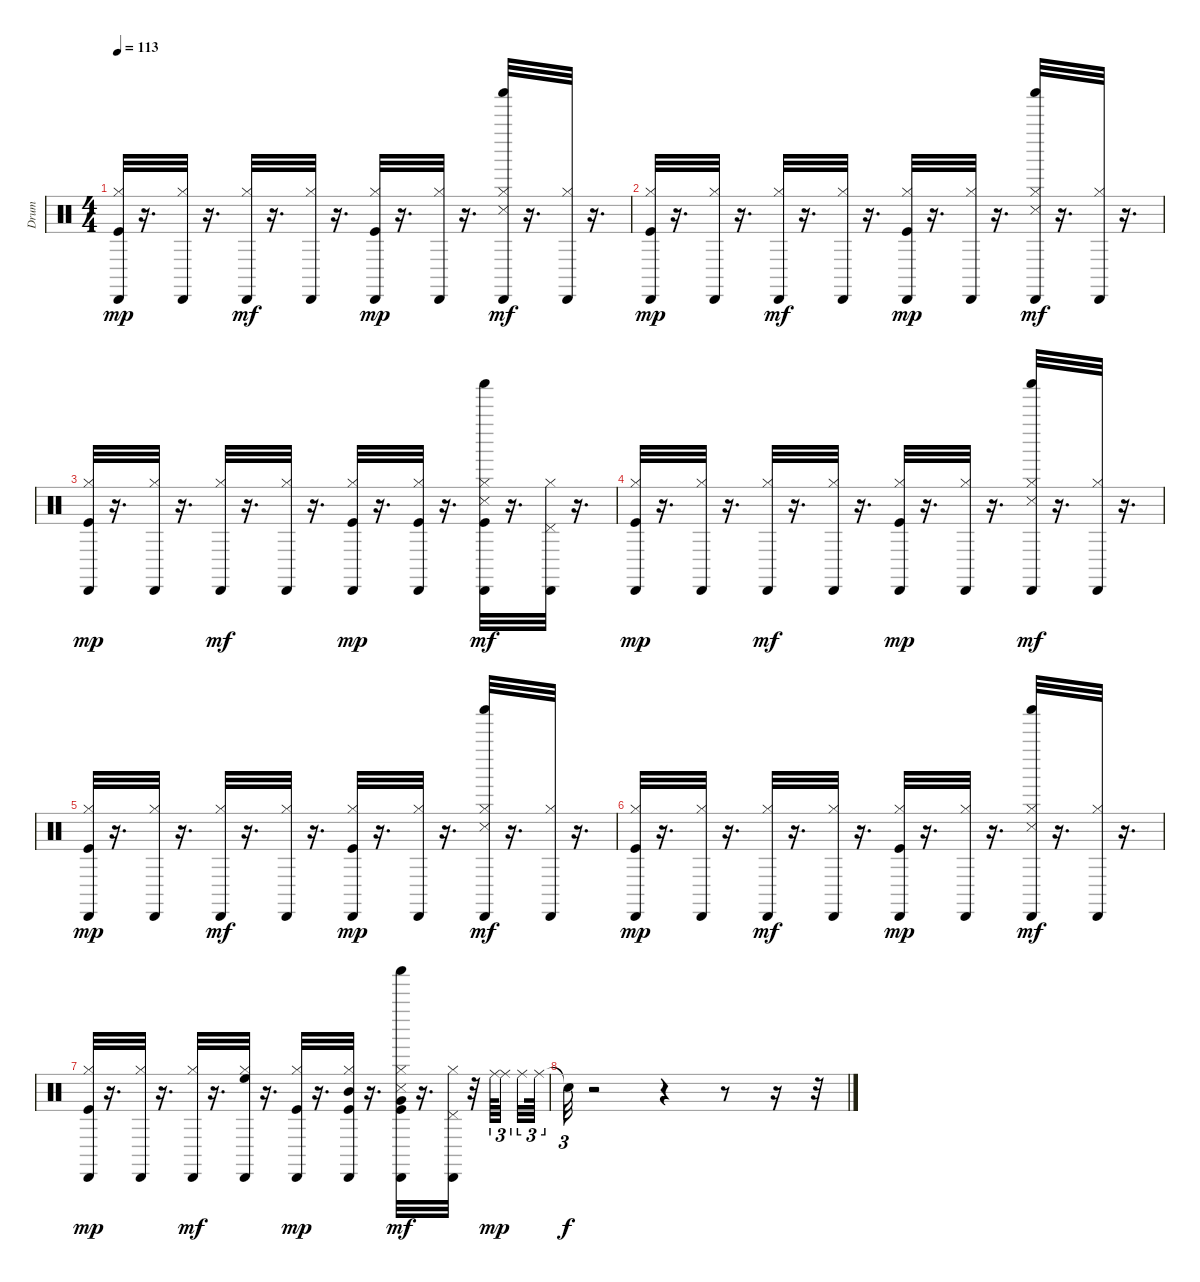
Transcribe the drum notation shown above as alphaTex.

\track ("Drum" "Drum") {instrument percussion}
\staff {score}
\articulation defaults
\ts (4 4)
\tempo 113
\clef neutral
\ks c
("Hi-Hat (closed)" "Kick (hit)" "Cabasa (hit)").32{dy mp} r.16{d} ("Hi-Hat (closed)" "Cabasa (hit)").32 r.16{d} ("Hi-Hat (closed)" "Cabasa (hit)").32{dy mf} r.16{d} ("Hi-Hat (closed)" "Cabasa (hit)").32 r.16{d} ("Hi-Hat (closed)" "Kick (hit)" "Cabasa (hit)").32{dy mp} r.16{d} ("Hi-Hat (closed)" "Cabasa (hit)").32 r.16{d} ("Hi-Hat (closed)" "Shaker (hit)" "Snare (side stick) 3" "Cabasa (hit)").32{dy mf} r.16{d} ("Hi-Hat (closed)" "Cabasa (hit)").32 r.16{d} |
("Hi-Hat (closed)" "Kick (hit)" "Cabasa (hit)").32{dy mp} r.16{d} ("Hi-Hat (closed)" "Cabasa (hit)").32 r.16{d} ("Hi-Hat (closed)" "Cabasa (hit)").32{dy mf} r.16{d} ("Hi-Hat (closed)" "Cabasa (hit)").32 r.16{d} ("Hi-Hat (closed)" "Kick (hit)" "Cabasa (hit)").32{dy mp} r.16{d} ("Hi-Hat (closed)" "Cabasa (hit)").32 r.16{d} ("Hi-Hat (closed)" "Shaker (hit)" "Snare (side stick) 3" "Cabasa (hit)").32{dy mf} r.16{d} ("Hi-Hat (closed)" "Cabasa (hit)").32 r.16{d} |
("Hi-Hat (closed)" "Kick (hit)" "Cabasa (hit)").32{dy mp} r.16{d} ("Hi-Hat (closed)" "Cabasa (hit)").32 r.16{d} ("Hi-Hat (closed)" "Cabasa (hit)").32{dy mf} r.16{d} ("Hi-Hat (closed)" "Cabasa (hit)").32 r.16{d} ("Hi-Hat (closed)" "Kick (hit)" "Cabasa (hit)").32{dy mp} r.16{d} ("Hi-Hat (closed)" "Kick (hit)" "Cabasa (hit)").32 r.16{d} ("Hi-Hat (closed)" "Shaker (hit)" "Snare (side stick) 3" "Kick (hit)" "Cabasa (hit)").32{dy mf} r.16{d} ("Hi-Hat (closed)" "Pedal Hi-Hat (hit)" "Cabasa (hit)").32 r.16{d} |
("Hi-Hat (closed)" "Kick (hit)" "Cabasa (hit)").32{dy mp} r.16{d} ("Hi-Hat (closed)" "Cabasa (hit)").32 r.16{d} ("Hi-Hat (closed)" "Cabasa (hit)").32{dy mf} r.16{d} ("Hi-Hat (closed)" "Cabasa (hit)").32 r.16{d} ("Hi-Hat (closed)" "Kick (hit)" "Cabasa (hit)").32{dy mp} r.16{d} ("Hi-Hat (closed)" "Cabasa (hit)").32 r.16{d} ("Hi-Hat (closed)" "Shaker (hit)" "Snare (side stick) 3" "Cabasa (hit)").32{dy mf} r.16{d} ("Hi-Hat (closed)" "Cabasa (hit)").32 r.16{d} |
("Hi-Hat (closed)" "Kick (hit)" "Cabasa (hit)").32{dy mp} r.16{d} ("Hi-Hat (closed)" "Cabasa (hit)").32 r.16{d} ("Hi-Hat (closed)" "Cabasa (hit)").32{dy mf} r.16{d} ("Hi-Hat (closed)" "Cabasa (hit)").32 r.16{d} ("Hi-Hat (closed)" "Kick (hit)" "Cabasa (hit)").32{dy mp} r.16{d} ("Hi-Hat (closed)" "Cabasa (hit)").32 r.16{d} ("Hi-Hat (closed)" "Shaker (hit)" "Snare (side stick) 3" "Cabasa (hit)").32{dy mf} r.16{d} ("Hi-Hat (closed)" "Cabasa (hit)").32 r.16{d} |
("Hi-Hat (closed)" "Kick (hit)" "Cabasa (hit)").32{dy mp} r.16{d} ("Hi-Hat (closed)" "Cabasa (hit)").32 r.16{d} ("Hi-Hat (closed)" "Cabasa (hit)").32{dy mf} r.16{d} ("Hi-Hat (closed)" "Cabasa (hit)").32 r.16{d} ("Hi-Hat (closed)" "Kick (hit)" "Cabasa (hit)").32{dy mp} r.16{d} ("Hi-Hat (closed)" "Cabasa (hit)").32 r.16{d} ("Hi-Hat (closed)" "Shaker (hit)" "Snare (side stick) 3" "Cabasa (hit)").32{dy mf} r.16{d} ("Hi-Hat (closed)" "Cabasa (hit)").32 r.16{d} |
("Hi-Hat (closed)" "Kick (hit)" "Cabasa (hit)").32{dy mp} r.16{d} ("Hi-Hat (closed)" "Cabasa (hit)").32 r.16{d} ("Hi-Hat (closed)" "Cabasa (hit)").32{dy mf} r.16{d} ("Hi-Hat (closed)" "High Floor Tom (hit)" "Cabasa (hit)").32 r.16{d} ("Hi-Hat (closed)" "Kick (hit)" "Cabasa (hit)").32{dy mp} r.16{d} ("Hi-Hat (closed)" "Mid Tom (hit)" "Kick (hit)" "Cabasa (hit)").32 r.16{d} ("Hi-Hat (closed)" "Very Low Tom (hit)" "Shaker (hit)" "Snare (side stick) 3" "Kick (hit)" "Cabasa (hit)").32{dy mf} r.16{d} ("Hi-Hat (closed)" "Pedal Hi-Hat (hit)" "Cabasa (hit)").32 r.32 "Ride (middle)".64{tu (3 2) dy mp} "Ride (middle)".32{tu (3 2) beam splitsecondary} "Ride (middle)".32{tu (3 2)} "Ride (middle)".64{tu (3 2)} |
"Snare (hit)"{t}.32{tu (3 2) dy f} r.2 r.4 r.8 r.16 r.32
